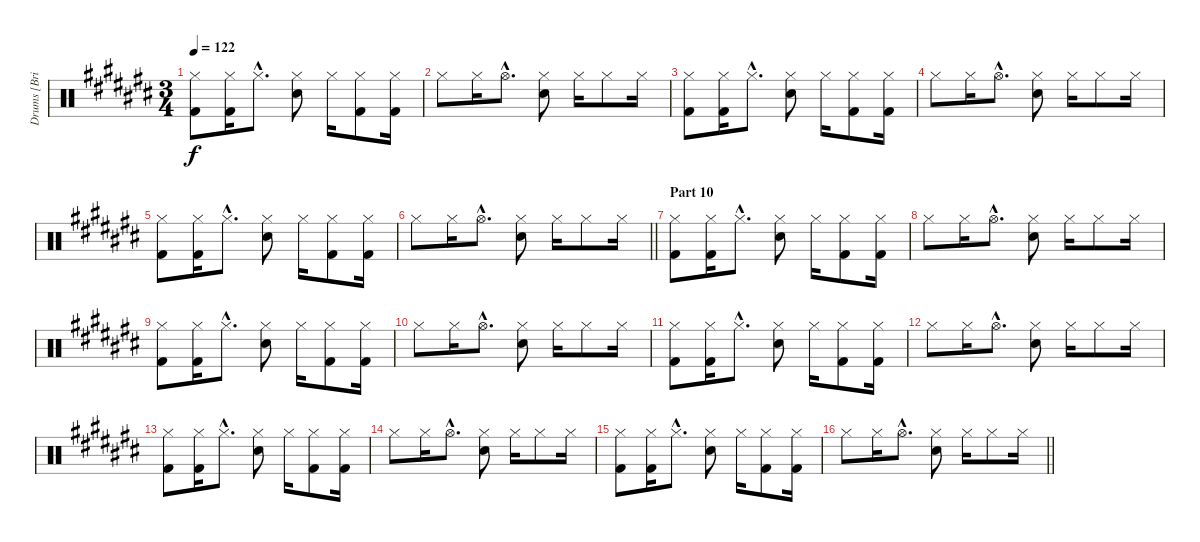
\track ("Drums [Brian \"Brain\" Mantia]" "Drums [Bri") {instrument percussion}
\staff {score}
\articulation defaults
\ts (3 4)
\tempo 122
\clef neutral
\ks c#
("Hi-Hat (closed)" "Kick (hit) 2").8{dy f} ("Hi-Hat (closed)" "Kick (hit) 2").16 "Hi-Hat (closed)"{hac}.8{d} ("Hi-Hat (closed)" "Electric Snare (hit)").8 "Hi-Hat (closed)".16 ("Hi-Hat (closed)" "Kick (hit) 2").8 ("Hi-Hat (closed)" "Kick (hit) 2").16 |
"Hi-Hat (closed)".8 "Hi-Hat (closed)".16 "Hi-Hat (open)"{hac}.8{d} ("Hi-Hat (closed)" "Electric Snare (hit)").8 "Hi-Hat (closed)".16 "Hi-Hat (closed)".8 "Hi-Hat (closed)".16 |
("Hi-Hat (closed)" "Kick (hit) 2").8 ("Hi-Hat (closed)" "Kick (hit) 2").16 "Hi-Hat (closed)"{hac}.8{d} ("Hi-Hat (closed)" "Electric Snare (hit)").8 "Hi-Hat (closed)".16 ("Hi-Hat (closed)" "Kick (hit) 2").8 ("Hi-Hat (closed)" "Kick (hit) 2").16 |
"Hi-Hat (closed)".8 "Hi-Hat (closed)".16 "Hi-Hat (open)"{hac}.8{d} ("Hi-Hat (closed)" "Electric Snare (hit)").8 "Hi-Hat (closed)".16 "Hi-Hat (closed)".8 "Hi-Hat (closed)".16 |
("Hi-Hat (closed)" "Kick (hit) 2").8 ("Hi-Hat (closed)" "Kick (hit) 2").16 "Hi-Hat (closed)"{hac}.8{d} ("Hi-Hat (closed)" "Electric Snare (hit)").8 "Hi-Hat (closed)".16 ("Hi-Hat (closed)" "Kick (hit) 2").8 ("Hi-Hat (closed)" "Kick (hit) 2").16 |
\barLineRight lightlight "Hi-Hat (closed)".8 "Hi-Hat (closed)".16 "Hi-Hat (open)"{hac}.8{d}
("Hi-Hat (closed)" "Electric Snare (hit)").8 "Hi-Hat (closed)".16 "Hi-Hat (closed)".8 "Hi-Hat (closed)".16 |
\section ("" "Part 10")
("Hi-Hat (closed)" "Kick (hit) 2").8 ("Hi-Hat (closed)" "Kick (hit) 2").16 "Hi-Hat (closed)"{hac}.8{d} ("Hi-Hat (closed)" "Electric Snare (hit)").8 "Hi-Hat (closed)".16 ("Hi-Hat (closed)" "Kick (hit) 2").8 ("Hi-Hat (closed)" "Kick (hit) 2").16 |
"Hi-Hat (closed)".8 "Hi-Hat (closed)".16 "Hi-Hat (open)"{hac}.8{d} ("Hi-Hat (closed)" "Electric Snare (hit)").8 "Hi-Hat (closed)".16 "Hi-Hat (closed)".8 "Hi-Hat (closed)".16 |
("Hi-Hat (closed)" "Kick (hit) 2").8 ("Hi-Hat (closed)" "Kick (hit) 2").16 "Hi-Hat (closed)"{hac}.8{d} ("Hi-Hat (closed)" "Electric Snare (hit)").8 "Hi-Hat (closed)".16 ("Hi-Hat (closed)" "Kick (hit) 2").8 ("Hi-Hat (closed)" "Kick (hit) 2").16 |
"Hi-Hat (closed)".8 "Hi-Hat (closed)".16 "Hi-Hat (open)"{hac}.8{d} ("Hi-Hat (closed)" "Electric Snare (hit)").8 "Hi-Hat (closed)".16 "Hi-Hat (closed)".8 "Hi-Hat (closed)".16 |
("Hi-Hat (closed)" "Kick (hit) 2").8 ("Hi-Hat (closed)" "Kick (hit) 2").16 "Hi-Hat (closed)"{hac}.8{d} ("Hi-Hat (closed)" "Electric Snare (hit)").8 "Hi-Hat (closed)".16 ("Hi-Hat (closed)" "Kick (hit) 2").8 ("Hi-Hat (closed)" "Kick (hit) 2").16 |
"Hi-Hat (closed)".8 "Hi-Hat (closed)".16 "Hi-Hat (open)"{hac}.8{d} ("Hi-Hat (closed)" "Electric Snare (hit)").8 "Hi-Hat (closed)".16 "Hi-Hat (closed)".8 "Hi-Hat (closed)".16 |
("Hi-Hat (closed)" "Kick (hit) 2").8 ("Hi-Hat (closed)" "Kick (hit) 2").16 "Hi-Hat (closed)"{hac}.8{d} ("Hi-Hat (closed)" "Electric Snare (hit)").8 "Hi-Hat (closed)".16 ("Hi-Hat (closed)" "Kick (hit) 2").8 ("Hi-Hat (closed)" "Kick (hit) 2").16 |
"Hi-Hat (closed)".8 "Hi-Hat (closed)".16 "Hi-Hat (open)"{hac}.8{d} ("Hi-Hat (closed)" "Electric Snare (hit)").8 "Hi-Hat (closed)".16 "Hi-Hat (closed)".8 "Hi-Hat (closed)".16 |
("Hi-Hat (closed)" "Kick (hit) 2").8 ("Hi-Hat (closed)" "Kick (hit) 2").16 "Hi-Hat (closed)"{hac}.8{d} ("Hi-Hat (closed)" "Electric Snare (hit)").8 "Hi-Hat (closed)".16 ("Hi-Hat (closed)" "Kick (hit) 2").8 ("Hi-Hat (closed)" "Kick (hit) 2").16 |
\barLineRight lightlight "Hi-Hat (closed)".8 "Hi-Hat (closed)".16 "Hi-Hat (open)"{hac}.8{d}
("Hi-Hat (closed)" "Electric Snare (hit)").8 "Hi-Hat (closed)".16 "Hi-Hat (closed)".8 "Hi-Hat (closed)".16
